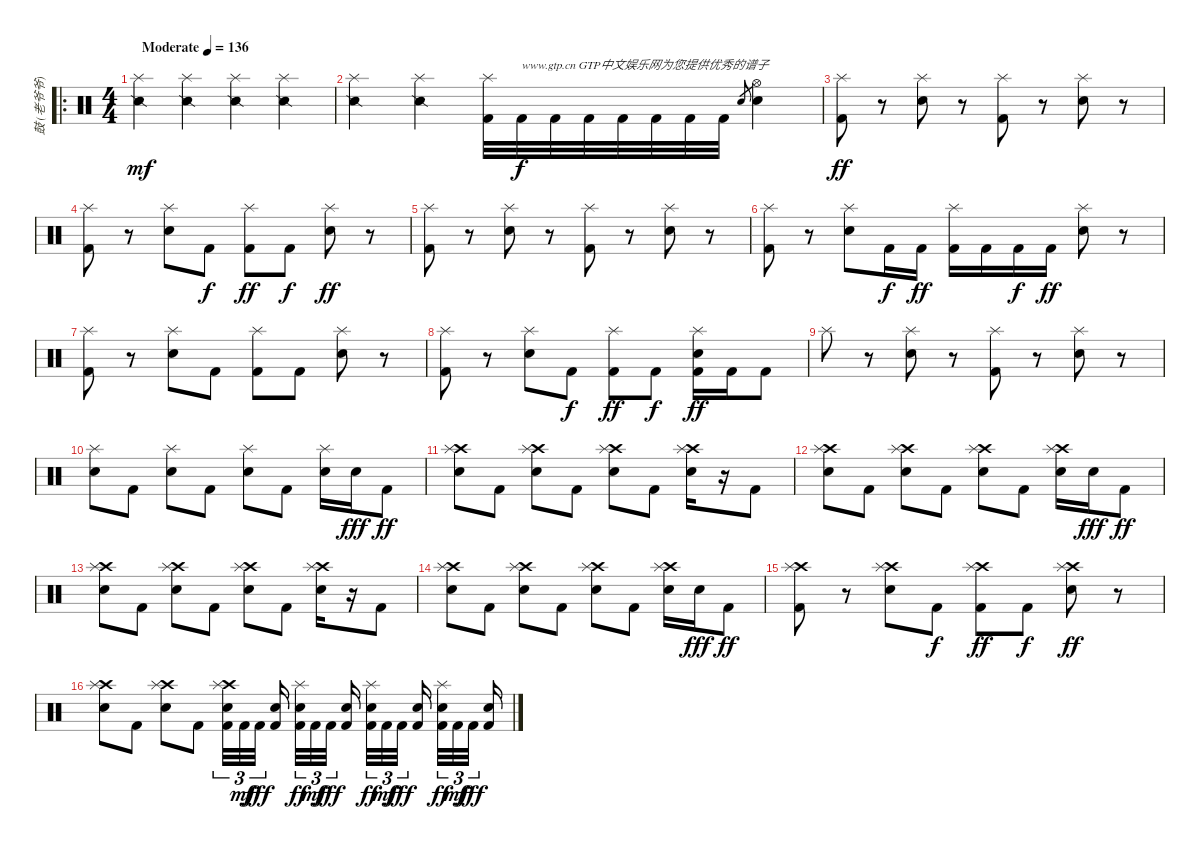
\track ("鼓 (老爷爷)" "鼓 (老爷爷)") {instrument percussion}
\staff {score}
\articulation defaults
\ro
\ts (4 4)
\tempo (136 "Moderate")
\clef neutral
\ks c
("Snare (side stick) 2" "Splash (hit)").4{dy mf} ("Snare (side stick) 2" "Splash (hit)").4 ("Snare (side stick) 2" "Splash (hit)").4 ("Snare (side stick) 2" "Splash (hit)").4 |
("Snare (side stick) 2" "Splash (hit)").4 ("Snare (side stick) 2" "Splash (hit)").4 ("Kick (hit) 2" "Splash (hit)").32 "Kick (hit) 2".32{txt "www.gtp.cn GTP中文娱乐网为您提供优秀的谱子" dy f} "Kick (hit) 2".32 "Kick (hit) 2".32 "Kick (hit) 2".32 "Kick (hit) 2".32 "Kick (hit) 2".32 "Kick (hit) 2".32 "Snare (hit) 2".8{gr} ("Snare (hit) 2" "Hi-Hat (open)").4 |
("Kick (hit) 2" "Splash (hit)").8{dy ff} r.8 ("Snare (hit) 2" "Splash (hit)").8 r.8 ("Kick (hit) 2" "Splash (hit)").8 r.8 ("Snare (hit) 2" "Splash (hit)").8 r.8 |
("Kick (hit) 2" "Splash (hit)").8 r.8 ("Snare (hit) 2" "Splash (hit)").8 "Kick (hit) 2".8{dy f} ("Kick (hit) 2" "Splash (hit)").8{dy ff} "Kick (hit) 2".8{dy f} ("Snare (hit) 2" "Splash (hit)").8{dy ff} r.8 |
("Kick (hit) 2" "Splash (hit)").8 r.8 ("Snare (hit) 2" "Splash (hit)").8 r.8 ("Kick (hit) 2" "Splash (hit)").8 r.8 ("Snare (hit) 2" "Splash (hit)").8 r.8 |
("Kick (hit) 2" "Splash (hit)").8 r.8 ("Snare (hit) 2" "Splash (hit)").8 "Kick (hit) 2".16{dy f} "Kick (hit) 2".16{dy ff} ("Kick (hit) 2" "Splash (hit)").16 "Kick (hit) 2".16 "Kick (hit) 2".16{dy f} "Kick (hit) 2".16{dy ff} ("Snare (hit) 2" "Splash (hit)").8 r.8 |
("Kick (hit) 2" "Splash (hit)").8 r.8 ("Snare (hit) 2" "Splash (hit)").8 "Kick (hit) 2".8 ("Kick (hit) 2" "Splash (hit)").8 "Kick (hit) 2".8 ("Snare (hit) 2" "Splash (hit)").8 r.8 |
("Kick (hit) 2" "Splash (hit)").8 r.8 ("Snare (hit) 2" "Splash (hit)").8 "Kick (hit) 2".8{dy f} ("Kick (hit) 2" "Splash (hit)").8{dy ff} "Kick (hit) 2".8{dy f} ("Snare (hit) 2" "Kick (hit) 2" "Splash (hit)").16{dy ff} "Kick (hit) 2".16 "Kick (hit) 2".8 |
"Splash (hit)".8 r.8 ("Snare (hit) 2" "Splash (hit)").8 r.8 ("Kick (hit) 2" "Splash (hit)").8 r.8 ("Snare (hit) 2" "Splash (hit)").8 r.8 |
("Snare (hit) 2" "Splash (hit)").8 "Kick (hit) 2".8 ("Snare (hit) 2" "Splash (hit)").8 "Kick (hit) 2".8 ("Snare (hit) 2" "Splash (hit)").8 "Kick (hit) 2".8 ("Snare (hit) 2" "Splash (hit)").16 "Snare (hit) 2".16{dy fff} "Kick (hit) 2".8{dy ff} |
("Crash high (hit)" "Electric Snare (hit)" "Splash (hit)").8 "Kick (hit) 2".8 ("Crash high (hit)" "Electric Snare (hit)" "Splash (hit)").8 "Kick (hit) 2".8 ("Crash high (hit)" "Electric Snare (hit)" "Splash (hit)").8 "Kick (hit) 2".8 ("Crash high (hit)" "Electric Snare (hit)" "Splash (hit)").16 r.16 "Kick (hit) 2".8 |
("Crash high (hit)" "Electric Snare (hit)" "Splash (hit)").8 "Kick (hit) 2".8 ("Crash high (hit)" "Electric Snare (hit)" "Splash (hit)").8 "Kick (hit) 2".8 ("Crash high (hit)" "Electric Snare (hit)" "Splash (hit)").8 "Kick (hit) 2".8 ("Crash high (hit)" "Electric Snare (hit)" "Splash (hit)").16 "Electric Snare (hit)".16{dy fff} "Kick (hit) 2".8{dy ff} |
("Crash high (hit)" "Electric Snare (hit)" "Splash (hit)").8 "Kick (hit) 2".8 ("Crash high (hit)" "Electric Snare (hit)" "Splash (hit)").8 "Kick (hit) 2".8 ("Crash high (hit)" "Electric Snare (hit)" "Splash (hit)").8 "Kick (hit) 2".8 ("Crash high (hit)" "Electric Snare (hit)" "Splash (hit)").16 r.16 "Kick (hit) 2".8 |
("Crash high (hit)" "Electric Snare (hit)" "Splash (hit)").8 "Kick (hit) 2".8 ("Crash high (hit)" "Electric Snare (hit)" "Splash (hit)").8 "Kick (hit) 2".8 ("Crash high (hit)" "Electric Snare (hit)" "Splash (hit)").8 "Kick (hit) 2".8 ("Crash high (hit)" "Electric Snare (hit)" "Splash (hit)").16 "Electric Snare (hit)".16{dy fff} "Kick (hit) 2".8{dy ff} |
("Crash high (hit)" "Kick (hit) 2" "Splash (hit)").8 r.8 ("Crash high (hit)" "Electric Snare (hit)" "Splash (hit)").8 "Kick (hit) 2".8{dy f} ("Crash high (hit)" "Kick (hit) 2" "Splash (hit)").8{dy ff} "Kick (hit) 2".8{dy f} ("Crash high (hit)" "Electric Snare (hit)" "Splash (hit)").8{dy ff} r.8 |
("Crash high (hit)" "Electric Snare (hit)" "Splash (hit)").8 "Kick (hit) 2".8 ("Crash high (hit)" "Electric Snare (hit)" "Splash (hit)").8 "Kick (hit) 2".8 ("Crash high (hit)" "Electric Snare (hit)" "Kick (hit) 2" "Splash (hit)").32{tu (3 2)} "Kick (hit) 2".32{tu (3 2) dy mf} "Kick (hit) 2".32{tu (3 2) dy fff beam splitsecondary} ("Electric Snare (hit)" "Kick (hit) 2").16{beam splitsecondary} ("Electric Snare (hit)" "Kick (hit) 2" "Splash (hit)").32{tu (3 2) dy ff} "Kick (hit) 2".32{tu (3 2) dy mf} "Kick (hit) 2".32{tu (3 2) dy fff beam splitsecondary} ("Electric Snare (hit)" "Kick (hit) 2").16 ("Electric Snare (hit)" "Kick (hit) 2" "Splash (hit)").32{tu (3 2) dy ff} "Kick (hit) 2".32{tu (3 2) dy mf} "Kick (hit) 2".32{tu (3 2) dy fff beam splitsecondary} ("Electric Snare (hit)" "Kick (hit) 2").16{beam splitsecondary} ("Electric Snare (hit)" "Kick (hit) 2" "Splash (hit)").32{tu (3 2) dy ff} "Kick (hit) 2".32{tu (3 2) dy mf} "Kick (hit) 2".32{tu (3 2) dy fff beam splitsecondary} ("Electric Snare (hit)" "Kick (hit) 2").16
